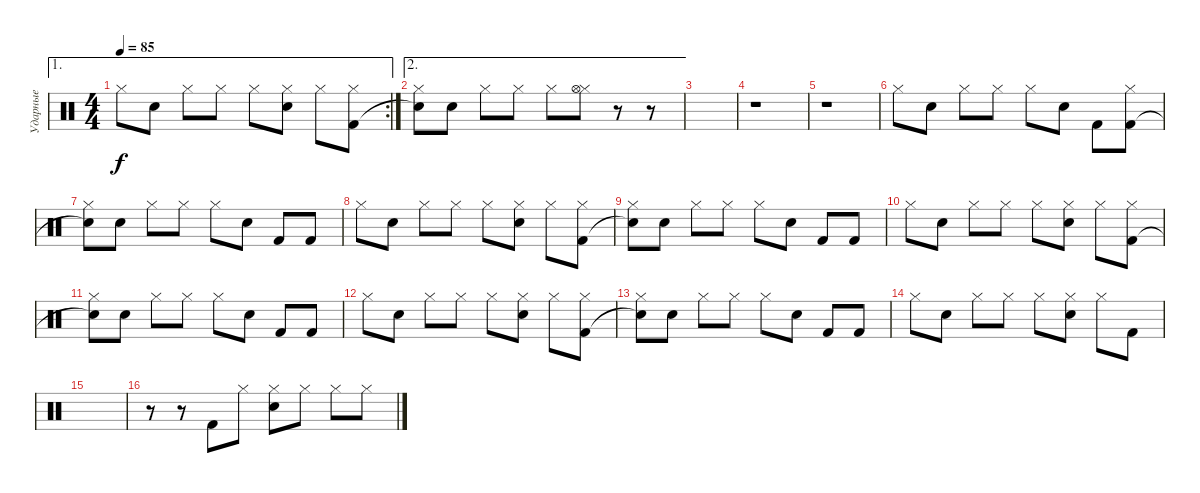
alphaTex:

\track ("Ударные" "Ударные") {instrument percussion}
\staff {score}
\articulation defaults
\ae 1
\rc 2
\ts (4 4)
\tempo 85
\clef neutral
\ks c "Hi-Hat (closed)".8{dy f} "Snare (hit) 2".8 "Hi-Hat (closed)".8 "Hi-Hat (closed)".8 "Hi-Hat (closed)".8
("Hi-Hat (closed)" "Snare (hit) 2").8 "Hi-Hat (closed)".8 ("Hi-Hat (closed)" "Kick (hit) 2").8 |
\ae 2
("Hi-Hat (closed)" "Snare (hit)"{t}).8 "Snare (hit) 2".8 "Hi-Hat (closed)".8 "Hi-Hat (closed)".8 "Hi-Hat (closed)".8 ("Hi-Hat (closed)" "Hi-Hat (open)").8 r.8 r.8 |
|
r.1 |
r.1 |
"Hi-Hat (closed)".8 "Snare (hit) 2".8 "Hi-Hat (closed)".8 "Hi-Hat (closed)".8 "Hi-Hat (closed)".8 "Snare (hit) 2".8 "Kick (hit) 2".8 ("Hi-Hat (closed)" "Kick (hit) 2").8 |
("Hi-Hat (closed)" "Snare (hit)"{t}).8 "Snare (hit) 2".8 "Hi-Hat (closed)".8 "Hi-Hat (closed)".8 "Hi-Hat (closed)".8 "Snare (hit) 2".8 "Kick (hit) 2".8 "Kick (hit) 2".8 |
"Hi-Hat (closed)".8 "Snare (hit) 2".8 "Hi-Hat (closed)".8 "Hi-Hat (closed)".8 "Hi-Hat (closed)".8 ("Hi-Hat (closed)" "Snare (hit) 2").8 "Hi-Hat (closed)".8 ("Hi-Hat (closed)" "Kick (hit) 2").8 |
("Hi-Hat (closed)" "Snare (hit)"{t}).8 "Snare (hit) 2".8 "Hi-Hat (closed)".8 "Hi-Hat (closed)".8 "Hi-Hat (closed)".8 "Snare (hit) 2".8 "Kick (hit) 2".8 "Kick (hit) 2".8 |
"Hi-Hat (closed)".8 "Snare (hit) 2".8 "Hi-Hat (closed)".8 "Hi-Hat (closed)".8 "Hi-Hat (closed)".8 ("Hi-Hat (closed)" "Snare (hit) 2").8 "Hi-Hat (closed)".8 ("Hi-Hat (closed)" "Kick (hit) 2").8 |
("Hi-Hat (closed)" "Snare (hit)"{t}).8 "Snare (hit) 2".8 "Hi-Hat (closed)".8 "Hi-Hat (closed)".8 "Hi-Hat (closed)".8 "Snare (hit) 2".8 "Kick (hit) 2".8 "Kick (hit) 2".8 |
"Hi-Hat (closed)".8 "Snare (hit) 2".8 "Hi-Hat (closed)".8 "Hi-Hat (closed)".8 "Hi-Hat (closed)".8 ("Hi-Hat (closed)" "Snare (hit) 2").8 "Hi-Hat (closed)".8 ("Hi-Hat (closed)" "Kick (hit) 2").8 |
("Hi-Hat (closed)" "Snare (hit)"{t}).8 "Snare (hit) 2".8 "Hi-Hat (closed)".8 "Hi-Hat (closed)".8 "Hi-Hat (closed)".8 "Snare (hit) 2".8 "Kick (hit) 2".8 "Kick (hit) 2".8 |
"Hi-Hat (closed)".8 "Snare (hit) 2".8 "Hi-Hat (closed)".8 "Hi-Hat (closed)".8 "Hi-Hat (closed)".8 ("Hi-Hat (closed)" "Snare (hit) 2").8 "Hi-Hat (closed)".8 "Kick (hit) 2".8 |
|
r.8 r.8 "Kick (hit) 2".8 "Hi-Hat (closed)".8 ("Hi-Hat (closed)" "Snare (hit) 2").8 "Hi-Hat (closed)".8 "Hi-Hat (closed)".8 "Hi-Hat (closed)".8
